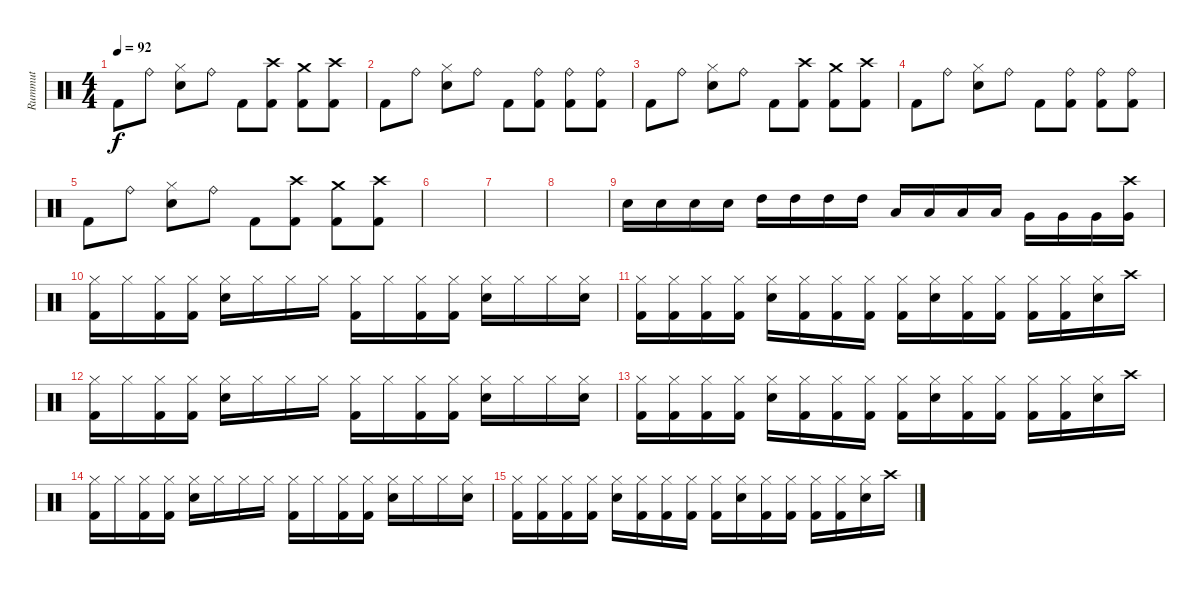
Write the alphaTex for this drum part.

\track ("Rummut" "Rummut") {instrument percussion}
\staff {score}
\articulation defaults
\ts (4 4)
\tempo 92
\clef neutral
\ks c "Kick (hit) 2".8{dy f} "Ride (bell)".8
("Hi-Hat (closed)" "Snare (hit) 2").8 "Ride (bell)".8 "Kick (hit) 2".8 ("Crash high (hit)" "Kick (hit) 2").8 ("Crash medium (hit)" "Kick (hit) 2").8 ("Crash high (hit)" "Kick (hit) 2").8 |
"Kick (hit) 2".8 "Ride (bell)".8 ("Hi-Hat (closed)" "Snare (hit) 2").8 "Ride (bell)".8 "Kick (hit) 2".8 ("Ride (bell)" "Kick (hit) 2").8 ("Ride (bell)" "Kick (hit) 2").8 ("Ride (bell)" "Kick (hit) 2").8 |
"Kick (hit) 2".8 "Ride (bell)".8 ("Hi-Hat (closed)" "Snare (hit) 2").8 "Ride (bell)".8 "Kick (hit) 2".8 ("Crash high (hit)" "Kick (hit) 2").8 ("Crash medium (hit)" "Kick (hit) 2").8 ("Crash high (hit)" "Kick (hit) 2").8 |
"Kick (hit) 2".8 "Ride (bell)".8 ("Hi-Hat (closed)" "Snare (hit) 2").8 "Ride (bell)".8 "Kick (hit) 2".8 ("Ride (bell)" "Kick (hit) 2").8 ("Ride (bell)" "Kick (hit) 2").8 ("Ride (bell)" "Kick (hit) 2").8 |
"Kick (hit) 2".8 "Ride (bell)".8 ("Hi-Hat (closed)" "Snare (hit) 2").8 "Ride (bell)".8 "Kick (hit) 2".8 ("Crash high (hit)" "Kick (hit) 2").8 ("Crash medium (hit)" "Kick (hit) 2").8 ("Crash high (hit)" "Kick (hit) 2").8 |
|
|
|
"Snare (hit) 2".16 "Snare (hit) 2".16 "Snare (hit) 2".16 "Snare (hit) 2".16 "High Tom (hit)".16 "High Tom (hit)".16 "High Tom (hit)".16 "High Tom (hit)".16 "Low Tom (hit)".16 "Low Tom (hit)".16 "Low Tom (hit)".16 "Low Tom (hit)".16 "Very Low Tom (hit)".16 "Very Low Tom (hit)".16 "Very Low Tom (hit)".16 ("Very Low Tom (hit)" "Crash high (hit)").16 |
("Hi-Hat (closed)" "Kick (hit) 2").16 "Hi-Hat (closed)".16 ("Hi-Hat (closed)" "Kick (hit) 2").16 ("Hi-Hat (closed)" "Kick (hit) 2").16 ("Hi-Hat (closed)" "Snare (hit) 2").16 "Hi-Hat (closed)".16 "Hi-Hat (closed)".16 "Hi-Hat (closed)".16 ("Hi-Hat (closed)" "Kick (hit) 2").16 "Hi-Hat (closed)".16 ("Hi-Hat (closed)" "Kick (hit) 2").16 ("Hi-Hat (closed)" "Kick (hit) 2").16 ("Hi-Hat (closed)" "Snare (hit) 2").16 "Hi-Hat (closed)".16 "Hi-Hat (closed)".16 ("Hi-Hat (closed)" "Snare (hit) 2").16 |
("Hi-Hat (closed)" "Kick (hit) 2").16 ("Hi-Hat (closed)" "Kick (hit) 2").16 ("Hi-Hat (closed)" "Kick (hit) 2").16 ("Hi-Hat (closed)" "Kick (hit) 2").16 ("Hi-Hat (closed)" "Snare (hit) 2").16 ("Hi-Hat (closed)" "Kick (hit) 2").16 ("Hi-Hat (closed)" "Kick (hit) 2").16 ("Hi-Hat (closed)" "Kick (hit) 2").16 ("Hi-Hat (closed)" "Kick (hit) 2").16 ("Hi-Hat (closed)" "Snare (hit) 2").16 ("Hi-Hat (closed)" "Kick (hit) 2").16 ("Hi-Hat (closed)" "Kick (hit) 2").16 ("Hi-Hat (closed)" "Kick (hit) 2").16 ("Hi-Hat (closed)" "Kick (hit) 2").16 ("Hi-Hat (closed)" "Snare (hit) 2").16 "Crash high (hit)".16 |
("Hi-Hat (closed)" "Kick (hit) 2").16 "Hi-Hat (closed)".16 ("Hi-Hat (closed)" "Kick (hit) 2").16 ("Hi-Hat (closed)" "Kick (hit) 2").16 ("Hi-Hat (closed)" "Snare (hit) 2").16 "Hi-Hat (closed)".16 "Hi-Hat (closed)".16 "Hi-Hat (closed)".16 ("Hi-Hat (closed)" "Kick (hit) 2").16 "Hi-Hat (closed)".16 ("Hi-Hat (closed)" "Kick (hit) 2").16 ("Hi-Hat (closed)" "Kick (hit) 2").16 ("Hi-Hat (closed)" "Snare (hit) 2").16 "Hi-Hat (closed)".16 "Hi-Hat (closed)".16 ("Hi-Hat (closed)" "Snare (hit) 2").16 |
("Hi-Hat (closed)" "Kick (hit) 2").16 ("Hi-Hat (closed)" "Kick (hit) 2").16 ("Hi-Hat (closed)" "Kick (hit) 2").16 ("Hi-Hat (closed)" "Kick (hit) 2").16 ("Hi-Hat (closed)" "Snare (hit) 2").16 ("Hi-Hat (closed)" "Kick (hit) 2").16 ("Hi-Hat (closed)" "Kick (hit) 2").16 ("Hi-Hat (closed)" "Kick (hit) 2").16 ("Hi-Hat (closed)" "Kick (hit) 2").16 ("Hi-Hat (closed)" "Snare (hit) 2").16 ("Hi-Hat (closed)" "Kick (hit) 2").16 ("Hi-Hat (closed)" "Kick (hit) 2").16 ("Hi-Hat (closed)" "Kick (hit) 2").16 ("Hi-Hat (closed)" "Kick (hit) 2").16 ("Hi-Hat (closed)" "Snare (hit) 2").16 "Crash high (hit)".16 |
("Hi-Hat (closed)" "Kick (hit) 2").16 "Hi-Hat (closed)".16 ("Hi-Hat (closed)" "Kick (hit) 2").16 ("Hi-Hat (closed)" "Kick (hit) 2").16 ("Hi-Hat (closed)" "Snare (hit) 2").16 "Hi-Hat (closed)".16 "Hi-Hat (closed)".16 "Hi-Hat (closed)".16 ("Hi-Hat (closed)" "Kick (hit) 2").16 "Hi-Hat (closed)".16 ("Hi-Hat (closed)" "Kick (hit) 2").16 ("Hi-Hat (closed)" "Kick (hit) 2").16 ("Hi-Hat (closed)" "Snare (hit) 2").16 "Hi-Hat (closed)".16 "Hi-Hat (closed)".16 ("Hi-Hat (closed)" "Snare (hit) 2").16 |
("Hi-Hat (closed)" "Kick (hit) 2").16 ("Hi-Hat (closed)" "Kick (hit) 2").16 ("Hi-Hat (closed)" "Kick (hit) 2").16 ("Hi-Hat (closed)" "Kick (hit) 2").16 ("Hi-Hat (closed)" "Snare (hit) 2").16 ("Hi-Hat (closed)" "Kick (hit) 2").16 ("Hi-Hat (closed)" "Kick (hit) 2").16 ("Hi-Hat (closed)" "Kick (hit) 2").16 ("Hi-Hat (closed)" "Kick (hit) 2").16 ("Hi-Hat (closed)" "Snare (hit) 2").16 ("Hi-Hat (closed)" "Kick (hit) 2").16 ("Hi-Hat (closed)" "Kick (hit) 2").16 ("Hi-Hat (closed)" "Kick (hit) 2").16 ("Hi-Hat (closed)" "Kick (hit) 2").16 ("Hi-Hat (closed)" "Snare (hit) 2").16 "Crash high (hit)".16
